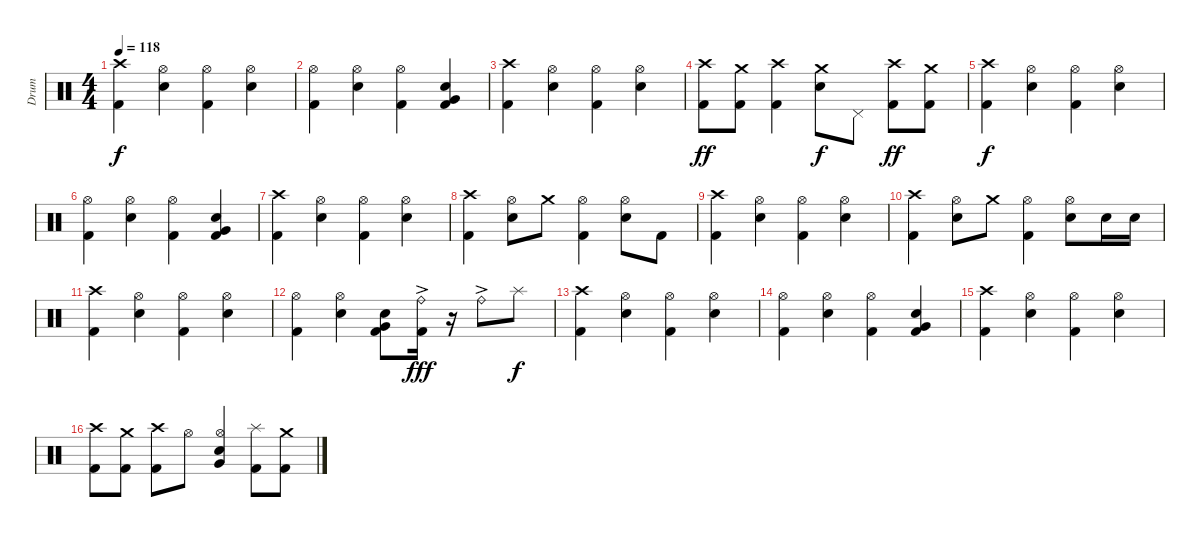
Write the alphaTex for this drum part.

\track ("Drum" "Drum") {instrument percussion}
\staff {score}
\articulation defaults
\ts (4 4)
\tempo 118
\clef neutral
\ks c
("Crash high (hit)" "Kick (hit) 2").4{dy f} ("Electric Snare (hit)" "Hi-Hat (open)").4 ("Kick (hit) 2" "Hi-Hat (open)").4 ("Electric Snare (hit)" "Hi-Hat (open)").4 |
("Hi-Hat (open)" "Kick (hit) 2").4 ("Electric Snare (hit)" "Hi-Hat (open)").4 ("Kick (hit) 2" "Hi-Hat (open)").4 ("Electric Snare (hit)" "Very Low Tom (hit)" "Kick (hit) 2").4 |
("Crash high (hit)" "Kick (hit) 2").4 ("Electric Snare (hit)" "Hi-Hat (open)").4 ("Kick (hit) 2" "Hi-Hat (open)").4 ("Electric Snare (hit)" "Hi-Hat (open)").4 |
("Crash high (hit)" "Kick (hit) 2").8{dy ff} ("Crash medium (hit)" "Kick (hit) 2").8 ("Crash high (hit)" "Kick (hit) 2").4 ("Crash medium (hit)" "Electric Snare (hit)").8{dy f} "Pedal Hi-Hat (hit)".8 ("Crash high (hit)" "Kick (hit) 2").8{dy ff} ("Crash medium (hit)" "Kick (hit) 2").8 |
("Crash high (hit)" "Kick (hit) 2").4{dy f} ("Electric Snare (hit)" "Hi-Hat (open)").4 ("Kick (hit) 2" "Hi-Hat (open)").4 ("Electric Snare (hit)" "Hi-Hat (open)").4 |
("Hi-Hat (open)" "Kick (hit) 2").4 ("Electric Snare (hit)" "Hi-Hat (open)").4 ("Kick (hit) 2" "Hi-Hat (open)").4 ("Electric Snare (hit)" "Very Low Tom (hit)" "Kick (hit) 2").4 |
("Crash high (hit)" "Kick (hit) 2").4 ("Electric Snare (hit)" "Hi-Hat (open)").4 ("Kick (hit) 2" "Hi-Hat (open)").4 ("Electric Snare (hit)" "Hi-Hat (open)").4 |
("Crash high (hit)" "Kick (hit) 2").4 ("Electric Snare (hit)" "Hi-Hat (open)").8 "Crash medium (hit)".8 ("Hi-Hat (open)" "Kick (hit) 2").4 ("Hi-Hat (open)" "Electric Snare (hit)").8 "Kick (hit) 2".8 |
("Crash high (hit)" "Kick (hit) 2").4 ("Electric Snare (hit)" "Hi-Hat (open)").4 ("Kick (hit) 2" "Hi-Hat (open)").4 ("Electric Snare (hit)" "Hi-Hat (open)").4 |
("Crash high (hit)" "Kick (hit) 2").4 ("Electric Snare (hit)" "Hi-Hat (open)").8 "Crash medium (hit)".8 ("Hi-Hat (open)" "Kick (hit) 2").4 ("Hi-Hat (open)" "Electric Snare (hit)").8 "Electric Snare (hit)".16 "Electric Snare (hit)".16 |
("Crash high (hit)" "Kick (hit) 2").4 ("Electric Snare (hit)" "Hi-Hat (open)").4 ("Kick (hit) 2" "Hi-Hat (open)").4 ("Electric Snare (hit)" "Hi-Hat (open)").4 |
("Hi-Hat (open)" "Kick (hit) 2").4 ("Hi-Hat (open)" "Electric Snare (hit)").4 ("Kick (hit) 2" "Very Low Tom (hit)" "Electric Snare (hit)").8 ("Kick (hit) 2" "Ride (bell)"{ac}).16{dy fff} r.16 "Ride (bell)"{ac}.8 "Splash (hit)".8{dy f} |
("Crash high (hit)" "Kick (hit) 2").4 ("Electric Snare (hit)" "Hi-Hat (open)").4 ("Kick (hit) 2" "Hi-Hat (open)").4 ("Electric Snare (hit)" "Hi-Hat (open)").4 |
("Kick (hit) 2" "Hi-Hat (open)").4 ("Electric Snare (hit)" "Hi-Hat (open)").4 ("Kick (hit) 2" "Hi-Hat (open)").4 ("Electric Snare (hit)" "Very Low Tom (hit)" "Kick (hit) 2").4 |
("Crash high (hit)" "Kick (hit) 2").4 ("Electric Snare (hit)" "Hi-Hat (open)").4 ("Kick (hit) 2" "Hi-Hat (open)").4 ("Electric Snare (hit)" "Hi-Hat (open)").4 |
("Kick (hit) 2" "Crash high (hit)").8 ("Kick (hit) 2" "Crash medium (hit)").8 ("Kick (hit) 2" "Crash high (hit)").8 "Hi-Hat (open)".8 ("Electric Snare (hit)" "Very Low Tom (hit)" "Hi-Hat (open)").4 ("Kick (hit) 2" "Splash (hit)").8 ("Kick (hit) 2" "Crash medium (hit)").8
